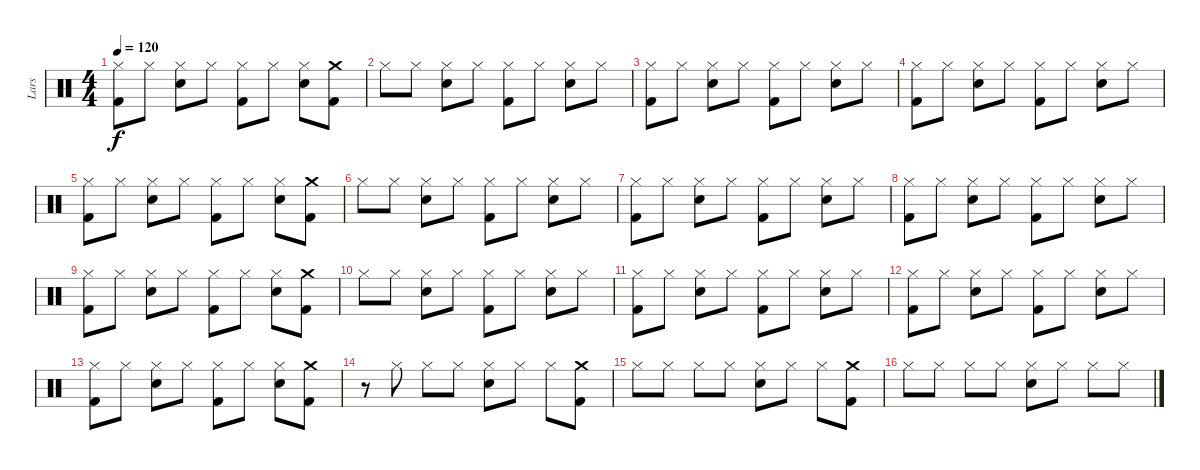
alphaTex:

\track ("Lars" "Lars") {instrument percussion}
\staff {score}
\articulation defaults
\ts (4 4)
\tempo 120
\clef neutral
\ks c
("Kick (hit) 2" "Hi-Hat (closed)").8{dy f} "Hi-Hat (closed)".8 ("Snare (hit) 2" "Hi-Hat (closed)").8 "Hi-Hat (closed)".8 ("Kick (hit) 2" "Hi-Hat (closed)").8 "Hi-Hat (closed)".8 ("Snare (hit) 2" "Hi-Hat (closed)").8 ("Crash medium (hit)" "Kick (hit) 2").8 |
"Hi-Hat (closed)".8 "Hi-Hat (closed)".8 ("Snare (hit) 2" "Hi-Hat (closed)").8 "Hi-Hat (closed)".8 ("Kick (hit) 2" "Hi-Hat (closed)").8 "Hi-Hat (closed)".8 ("Snare (hit) 2" "Hi-Hat (closed)").8 "Hi-Hat (closed)".8 |
("Kick (hit) 2" "Hi-Hat (closed)").8 "Hi-Hat (closed)".8 ("Snare (hit) 2" "Hi-Hat (closed)").8 "Hi-Hat (closed)".8 ("Kick (hit) 2" "Hi-Hat (closed)").8 "Hi-Hat (closed)".8 ("Snare (hit) 2" "Hi-Hat (closed)").8 "Hi-Hat (closed)".8 |
("Kick (hit) 2" "Hi-Hat (closed)").8 "Hi-Hat (closed)".8 ("Snare (hit) 2" "Hi-Hat (closed)").8 "Hi-Hat (closed)".8 ("Kick (hit) 2" "Hi-Hat (closed)").8 "Hi-Hat (closed)".8 ("Snare (hit) 2" "Hi-Hat (closed)").8 "Hi-Hat (closed)".8 |
("Kick (hit) 2" "Hi-Hat (closed)").8 "Hi-Hat (closed)".8 ("Snare (hit) 2" "Hi-Hat (closed)").8 "Hi-Hat (closed)".8 ("Kick (hit) 2" "Hi-Hat (closed)").8 "Hi-Hat (closed)".8 ("Snare (hit) 2" "Hi-Hat (closed)").8 ("Kick (hit) 2" "Crash medium (hit)").8 |
"Hi-Hat (closed)".8 "Hi-Hat (closed)".8 ("Snare (hit) 2" "Hi-Hat (closed)").8 "Hi-Hat (closed)".8 ("Kick (hit) 2" "Hi-Hat (closed)").8 "Hi-Hat (closed)".8 ("Snare (hit) 2" "Hi-Hat (closed)").8 "Hi-Hat (closed)".8 |
("Kick (hit) 2" "Hi-Hat (closed)").8 "Hi-Hat (closed)".8 ("Snare (hit) 2" "Hi-Hat (closed)").8 "Hi-Hat (closed)".8 ("Kick (hit) 2" "Hi-Hat (closed)").8 "Hi-Hat (closed)".8 ("Snare (hit) 2" "Hi-Hat (closed)").8 "Hi-Hat (closed)".8 |
("Kick (hit) 2" "Hi-Hat (closed)").8 "Hi-Hat (closed)".8 ("Snare (hit) 2" "Hi-Hat (closed)").8 "Hi-Hat (closed)".8 ("Kick (hit) 2" "Hi-Hat (closed)").8 "Hi-Hat (closed)".8 ("Snare (hit) 2" "Hi-Hat (closed)").8 "Hi-Hat (closed)".8 |
("Kick (hit) 2" "Hi-Hat (closed)").8 "Hi-Hat (closed)".8 ("Snare (hit) 2" "Hi-Hat (closed)").8 "Hi-Hat (closed)".8 ("Kick (hit) 2" "Hi-Hat (closed)").8 "Hi-Hat (closed)".8 ("Snare (hit) 2" "Hi-Hat (closed)").8 ("Kick (hit) 2" "Crash medium (hit)").8 |
"Hi-Hat (closed)".8 "Hi-Hat (closed)".8 ("Snare (hit) 2" "Hi-Hat (closed)").8 "Hi-Hat (closed)".8 ("Kick (hit) 2" "Hi-Hat (closed)").8 "Hi-Hat (closed)".8 ("Snare (hit) 2" "Hi-Hat (closed)").8 "Hi-Hat (closed)".8 |
("Kick (hit) 2" "Hi-Hat (closed)").8 "Hi-Hat (closed)".8 ("Snare (hit) 2" "Hi-Hat (closed)").8 "Hi-Hat (closed)".8 ("Kick (hit) 2" "Hi-Hat (closed)").8 "Hi-Hat (closed)".8 ("Snare (hit) 2" "Hi-Hat (closed)").8 "Hi-Hat (closed)".8 |
("Kick (hit) 2" "Hi-Hat (closed)").8 "Hi-Hat (closed)".8 ("Snare (hit) 2" "Hi-Hat (closed)").8 "Hi-Hat (closed)".8 ("Kick (hit) 2" "Hi-Hat (closed)").8 "Hi-Hat (closed)".8 ("Snare (hit) 2" "Hi-Hat (closed)").8 "Hi-Hat (closed)".8 |
("Kick (hit) 2" "Hi-Hat (closed)").8 "Hi-Hat (closed)".8 ("Snare (hit) 2" "Hi-Hat (closed)").8 "Hi-Hat (closed)".8 ("Kick (hit) 2" "Hi-Hat (closed)").8 "Hi-Hat (closed)".8 ("Snare (hit) 2" "Hi-Hat (closed)").8 ("Kick (hit) 2" "Crash medium (hit)").8 |
r.8 "Hi-Hat (closed)".8 "Hi-Hat (closed)".8 "Hi-Hat (closed)".8 ("Snare (hit) 2" "Hi-Hat (closed)").8 "Hi-Hat (closed)".8 "Hi-Hat (closed)".8 ("Kick (hit) 2" "Crash medium (hit)").8 |
"Hi-Hat (closed)".8 "Hi-Hat (closed)".8 "Hi-Hat (closed)".8 "Hi-Hat (closed)".8 ("Snare (hit) 2" "Hi-Hat (closed)").8 "Hi-Hat (closed)".8 "Hi-Hat (closed)".8 ("Crash medium (hit)" "Kick (hit) 2").8 |
"Hi-Hat (closed)".8 "Hi-Hat (closed)".8 "Hi-Hat (closed)".8 "Hi-Hat (closed)".8 ("Snare (hit) 2" "Hi-Hat (closed)").8 "Hi-Hat (closed)".8 "Hi-Hat (closed)".8 "Hi-Hat (closed)".8
